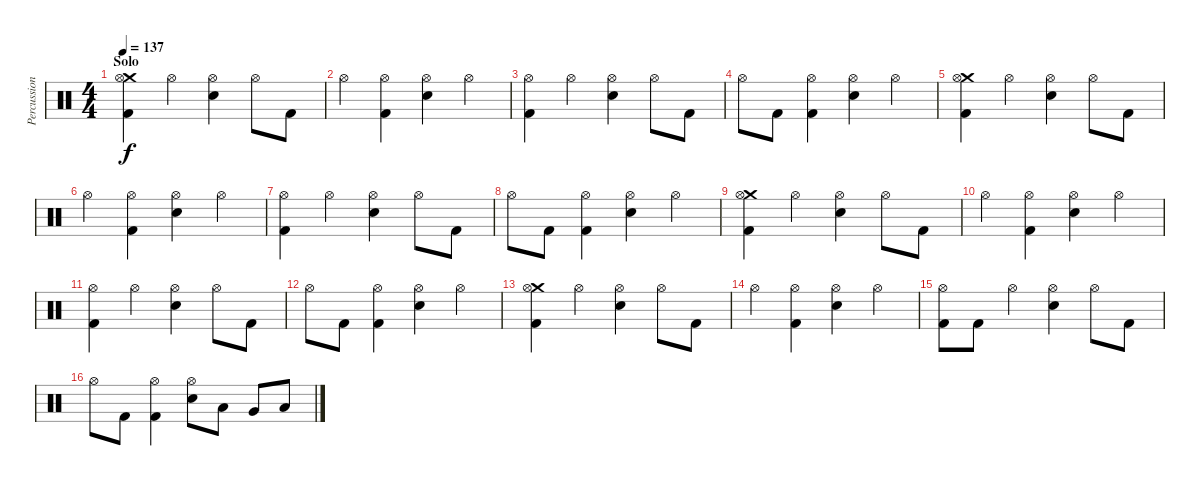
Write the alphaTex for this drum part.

\track ("Percussion" "Percussion") {instrument percussion}
\staff {score}
\articulation defaults
\ts (4 4)
\section ("" "Solo")
\tempo 137
\clef neutral
\ks c
("Crash medium (hit)" "Hi-Hat (open)" "Kick (hit) 2").4{dy f} "Hi-Hat (open)".4 ("Hi-Hat (open)" "Electric Snare (hit)").4 "Hi-Hat (open)".8 "Kick (hit) 2".8 |
"Hi-Hat (open)".4 ("Hi-Hat (open)" "Kick (hit) 2").4 ("Hi-Hat (open)" "Electric Snare (hit)").4 "Hi-Hat (open)".4 |
("Hi-Hat (open)" "Kick (hit) 2").4 "Hi-Hat (open)".4 ("Hi-Hat (open)" "Electric Snare (hit)").4 "Hi-Hat (open)".8 "Kick (hit) 2".8 |
"Hi-Hat (open)".8 "Kick (hit) 2".8 ("Hi-Hat (open)" "Kick (hit) 2").4 ("Hi-Hat (open)" "Electric Snare (hit)").4 "Hi-Hat (open)".4 |
("Crash medium (hit)" "Hi-Hat (open)" "Kick (hit) 2").4 "Hi-Hat (open)".4 ("Hi-Hat (open)" "Electric Snare (hit)").4 "Hi-Hat (open)".8 "Kick (hit) 2".8 |
"Hi-Hat (open)".4 ("Hi-Hat (open)" "Kick (hit) 2").4 ("Hi-Hat (open)" "Electric Snare (hit)").4 "Hi-Hat (open)".4 |
("Hi-Hat (open)" "Kick (hit) 2").4 "Hi-Hat (open)".4 ("Hi-Hat (open)" "Electric Snare (hit)").4 "Hi-Hat (open)".8 "Kick (hit) 2".8 |
"Hi-Hat (open)".8 "Kick (hit) 2".8 ("Hi-Hat (open)" "Kick (hit) 2").4 ("Hi-Hat (open)" "Electric Snare (hit)").4 "Hi-Hat (open)".4 |
("Crash medium (hit)" "Hi-Hat (open)" "Kick (hit) 2").4 "Hi-Hat (open)".4 ("Hi-Hat (open)" "Electric Snare (hit)").4 "Hi-Hat (open)".8 "Kick (hit) 2".8 |
"Hi-Hat (open)".4 ("Hi-Hat (open)" "Kick (hit) 2").4 ("Hi-Hat (open)" "Electric Snare (hit)").4 "Hi-Hat (open)".4 |
("Hi-Hat (open)" "Kick (hit) 2").4 "Hi-Hat (open)".4 ("Hi-Hat (open)" "Electric Snare (hit)").4 "Hi-Hat (open)".8 "Kick (hit) 2".8 |
"Hi-Hat (open)".8 "Kick (hit) 2".8 ("Hi-Hat (open)" "Kick (hit) 2").4 ("Hi-Hat (open)" "Electric Snare (hit)").4 "Hi-Hat (open)".4 |
("Crash medium (hit)" "Hi-Hat (open)" "Kick (hit) 2").4 "Hi-Hat (open)".4 ("Hi-Hat (open)" "Electric Snare (hit)").4 "Hi-Hat (open)".8 "Kick (hit) 2".8 |
"Hi-Hat (open)".4 ("Hi-Hat (open)" "Kick (hit) 2").4 ("Hi-Hat (open)" "Electric Snare (hit)").4 "Hi-Hat (open)".4 |
("Hi-Hat (open)" "Kick (hit) 2").8 "Kick (hit) 2".8 "Hi-Hat (open)".4 ("Hi-Hat (open)" "Electric Snare (hit)").4 "Hi-Hat (open)".8 "Kick (hit) 2".8 |
"Hi-Hat (open)".8 "Kick (hit) 2".8 ("Hi-Hat (open)" "Kick (hit) 2").4 ("Hi-Hat (open)" "Electric Snare (hit)").8 "Low Tom (hit)".8 "Very Low Tom (hit)".8 "Low Floor Tom (hit)".8
